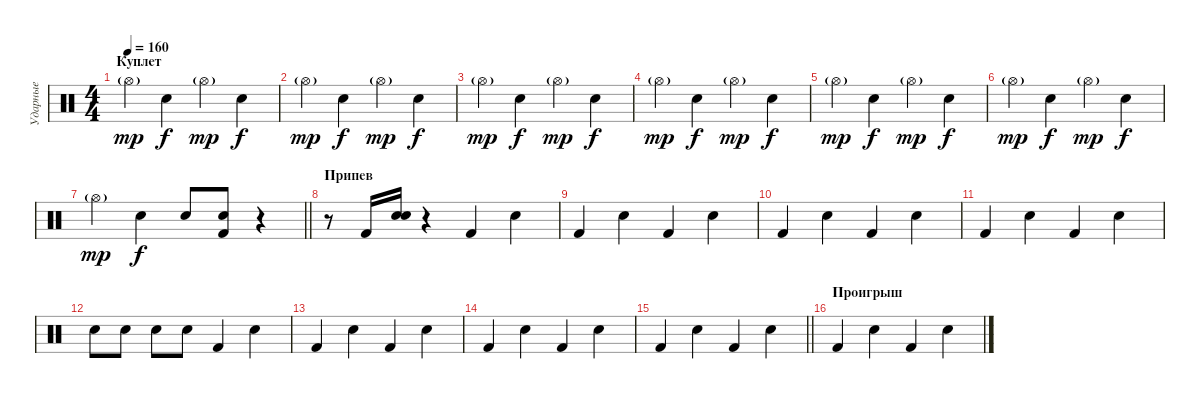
\track ("Ударные" "Ударные") {instrument percussion}
\staff {score}
\articulation defaults
\ts (4 4)
\section ("" "Куплет")
\tempo 160
\clef neutral
\ks c "Hi-Hat (open)"{g}.4{dy mp} "Electric Snare (hit)".4{dy f} "Hi-Hat (open)"{g}.4{dy mp} "Electric Snare (hit)".4{dy f}
|
"Hi-Hat (open)"{g}.4{dy mp} "Electric Snare (hit)".4{dy f} "Hi-Hat (open)"{g}.4{dy mp} "Electric Snare (hit)".4{dy f} |
"Hi-Hat (open)"{g}.4{dy mp} "Electric Snare (hit)".4{dy f} "Hi-Hat (open)"{g}.4{dy mp} "Electric Snare (hit)".4{dy f} |
"Hi-Hat (open)"{g}.4{dy mp} "Electric Snare (hit)".4{dy f} "Hi-Hat (open)"{g}.4{dy mp} "Electric Snare (hit)".4{dy f} |
"Hi-Hat (open)"{g}.4{dy mp} "Electric Snare (hit)".4{dy f} "Hi-Hat (open)"{g}.4{dy mp} "Electric Snare (hit)".4{dy f} |
"Hi-Hat (open)"{g}.4{dy mp} "Electric Snare (hit)".4{dy f} "Hi-Hat (open)"{g}.4{dy mp} "Electric Snare (hit)".4{dy f} |
\barLineRight lightlight "Hi-Hat (open)"{g}.4{dy mp} "Electric Snare (hit)".4{dy f} "Electric Snare (hit)".8
("Electric Snare (hit)" "Kick (hit) 2").8 r.4 |
\section ("" "Припев")
r.8 "Kick (hit) 2".16 ("Electric Snare (hit)" "Snare (hit) 2").16 r.4 "Kick (hit) 2".4 "Snare (hit) 2".4 |
"Kick (hit) 2".4 "Snare (hit) 2".4 "Kick (hit) 2".4 "Snare (hit) 2".4 |
"Kick (hit) 2".4 "Snare (hit) 2".4 "Kick (hit) 2".4 "Snare (hit) 2".4 |
"Kick (hit) 2".4 "Snare (hit) 2".4 "Kick (hit) 2".4 "Snare (hit) 2".4 |
"Snare (hit) 2".8 "Snare (hit) 2".8 "Snare (hit) 2".8 "Snare (hit) 2".8 "Kick (hit) 2".4 "Snare (hit) 2".4 |
"Kick (hit) 2".4 "Snare (hit) 2".4 "Kick (hit) 2".4 "Snare (hit) 2".4 |
"Kick (hit) 2".4 "Snare (hit) 2".4 "Kick (hit) 2".4 "Snare (hit) 2".4 |
\barLineRight lightlight "Kick (hit) 2".4 "Snare (hit) 2".4 "Kick (hit) 2".4 "Snare (hit) 2".4
|
\section ("" "Проигрыш")
"Kick (hit) 2".4 "Snare (hit) 2".4 "Kick (hit) 2".4 "Snare (hit) 2".4
